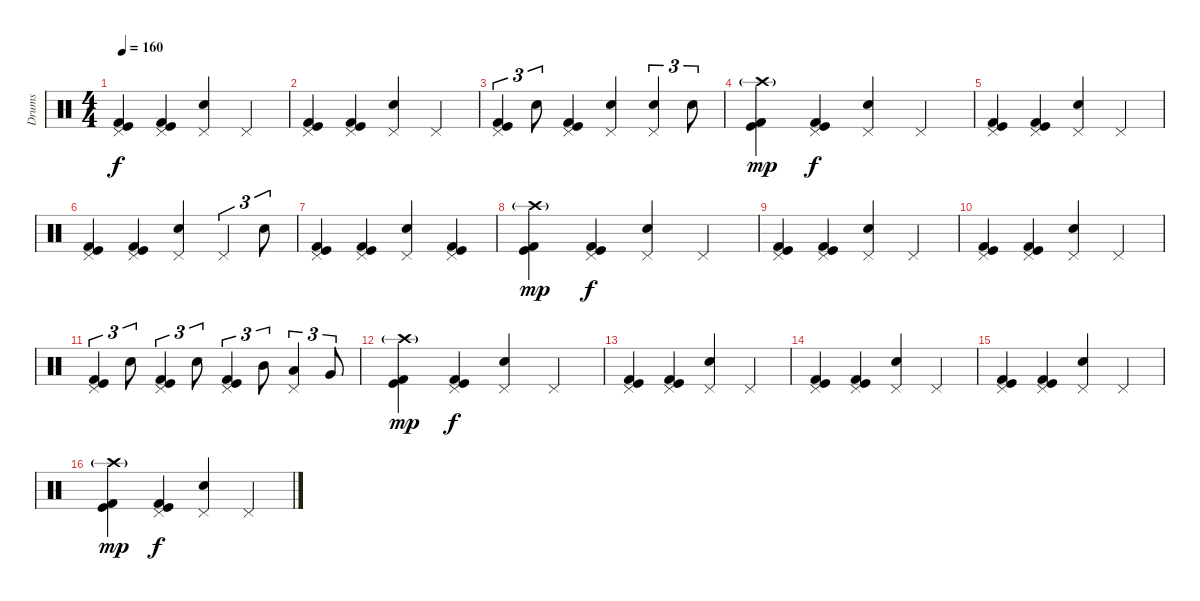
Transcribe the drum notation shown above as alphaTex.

\track ("Drums" "Drums") {instrument percussion}
\staff {score}
\articulation defaults
\ts (4 4)
\tempo 160
\clef neutral
\ks c
("Pedal Hi-Hat (hit)" "Kick (hit)" "Kick (hit) 2").4{dy f} ("Pedal Hi-Hat (hit)" "Kick (hit)" "Kick (hit) 2").4 ("Pedal Hi-Hat (hit)" "Electric Snare (hit)").4 "Pedal Hi-Hat (hit)".4 |
("Pedal Hi-Hat (hit)" "Kick (hit)" "Kick (hit) 2").4 ("Pedal Hi-Hat (hit)" "Kick (hit)" "Kick (hit) 2").4 ("Pedal Hi-Hat (hit)" "Electric Snare (hit)").4 "Pedal Hi-Hat (hit)".4 |
("Pedal Hi-Hat (hit)" "Kick (hit)" "Kick (hit) 2").4{tu (3 2)} "Electric Snare (hit)".8{tu (3 2)} ("Pedal Hi-Hat (hit)" "Kick (hit)" "Kick (hit) 2").4 ("Pedal Hi-Hat (hit)" "Electric Snare (hit)").4 ("Pedal Hi-Hat (hit)" "Electric Snare (hit)").4{tu (3 2)} "Electric Snare (hit)".8{tu (3 2)} |
("Crash high (hit)"{g} "Kick (hit)" "Kick (hit) 2").4{dy mp} ("Pedal Hi-Hat (hit)" "Kick (hit)" "Kick (hit) 2").4{dy f} ("Pedal Hi-Hat (hit)" "Electric Snare (hit)").4 "Pedal Hi-Hat (hit)".4 |
("Pedal Hi-Hat (hit)" "Kick (hit)" "Kick (hit) 2").4 ("Pedal Hi-Hat (hit)" "Kick (hit)" "Kick (hit) 2").4 ("Pedal Hi-Hat (hit)" "Electric Snare (hit)").4 "Pedal Hi-Hat (hit)".4 |
("Pedal Hi-Hat (hit)" "Kick (hit)" "Kick (hit) 2").4 ("Pedal Hi-Hat (hit)" "Kick (hit)" "Kick (hit) 2").4 ("Pedal Hi-Hat (hit)" "Electric Snare (hit)").4 "Pedal Hi-Hat (hit)".4{tu (3 2)} "Electric Snare (hit)".8{tu (3 2)} |
("Pedal Hi-Hat (hit)" "Kick (hit)" "Kick (hit) 2").4 ("Pedal Hi-Hat (hit)" "Kick (hit)" "Kick (hit) 2").4 ("Pedal Hi-Hat (hit)" "Electric Snare (hit)").4 ("Pedal Hi-Hat (hit)" "Kick (hit)" "Kick (hit) 2").4 |
("Crash high (hit)"{g} "Kick (hit)" "Kick (hit) 2").4{dy mp} ("Pedal Hi-Hat (hit)" "Kick (hit)" "Kick (hit) 2").4{dy f} ("Pedal Hi-Hat (hit)" "Electric Snare (hit)").4 "Pedal Hi-Hat (hit)".4 |
("Pedal Hi-Hat (hit)" "Kick (hit)" "Kick (hit) 2").4 ("Pedal Hi-Hat (hit)" "Kick (hit)" "Kick (hit) 2").4 ("Pedal Hi-Hat (hit)" "Electric Snare (hit)").4 "Pedal Hi-Hat (hit)".4 |
("Pedal Hi-Hat (hit)" "Kick (hit)" "Kick (hit) 2").4 ("Pedal Hi-Hat (hit)" "Kick (hit)" "Kick (hit) 2").4 ("Pedal Hi-Hat (hit)" "Electric Snare (hit)").4 "Pedal Hi-Hat (hit)".4 |
("Pedal Hi-Hat (hit)" "Kick (hit)" "Kick (hit) 2").4{tu (3 2)} "Electric Snare (hit)".8{tu (3 2)} ("Pedal Hi-Hat (hit)" "Kick (hit)" "Kick (hit) 2").4{tu (3 2)} "Electric Snare (hit)".8{tu (3 2)} ("Pedal Hi-Hat (hit)" "Kick (hit)" "Kick (hit) 2").4{tu (3 2)} "Mid Tom (hit)".8{tu (3 2)} ("Pedal Hi-Hat (hit)" "Low Tom (hit)").4{tu (3 2)} "Very Low Tom (hit)".8{tu (3 2)} |
("Crash high (hit)"{g} "Kick (hit)" "Kick (hit) 2").4{dy mp volume 8} ("Pedal Hi-Hat (hit)" "Kick (hit)" "Kick (hit) 2").4{dy f} ("Pedal Hi-Hat (hit)" "Electric Snare (hit)").4 "Pedal Hi-Hat (hit)".4 |
("Pedal Hi-Hat (hit)" "Kick (hit)" "Kick (hit) 2").4 ("Pedal Hi-Hat (hit)" "Kick (hit)" "Kick (hit) 2").4 ("Pedal Hi-Hat (hit)" "Electric Snare (hit)").4 "Pedal Hi-Hat (hit)".4 |
("Pedal Hi-Hat (hit)" "Kick (hit)" "Kick (hit) 2").4 ("Pedal Hi-Hat (hit)" "Kick (hit)" "Kick (hit) 2").4 ("Pedal Hi-Hat (hit)" "Electric Snare (hit)").4 "Pedal Hi-Hat (hit)".4 |
("Pedal Hi-Hat (hit)" "Kick (hit)" "Kick (hit) 2").4 ("Pedal Hi-Hat (hit)" "Kick (hit)" "Kick (hit) 2").4 ("Pedal Hi-Hat (hit)" "Electric Snare (hit)").4 "Pedal Hi-Hat (hit)".4 |
("Crash high (hit)"{g} "Kick (hit)" "Kick (hit) 2").4{dy mp volume 0} ("Pedal Hi-Hat (hit)" "Kick (hit)" "Kick (hit) 2").4{dy f} ("Pedal Hi-Hat (hit)" "Electric Snare (hit)").4 "Pedal Hi-Hat (hit)".4
